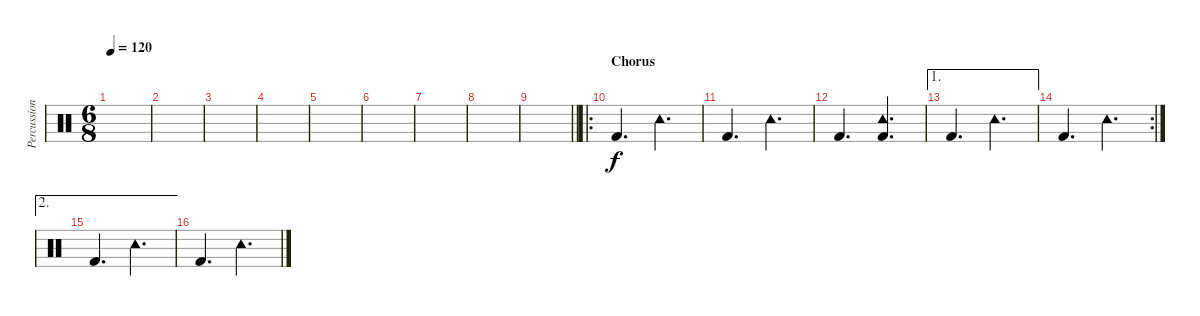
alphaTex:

\track ("Percussion" "Percussion") {instrument percussion}
\staff {score}
\articulation defaults
\ts (6 8)
\tempo 120
\clef neutral
\ks c
|
|
|
|
|
|
|
|
\barLineRight lightlight
|
\ro
\section ("" "Chorus")
"Kick (hit) 2".4{d} "Tambourine (hit)".4{d} |
"Kick (hit) 2".4{d} "Tambourine (hit)".4{d} |
"Kick (hit) 2".4{d} ("Tambourine (hit)" "Kick (hit) 2").4{d} |
\ae 1 "Kick (hit) 2".4{d} "Tambourine (hit)".4{d}
|
\rc 2 "Kick (hit) 2".4{d} "Tambourine (hit)".4{d}
|
\ae 2 "Kick (hit) 2".4{d} "Tambourine (hit)".4{d}
|
"Kick (hit) 2".4{d} "Tambourine (hit)".4{d}
